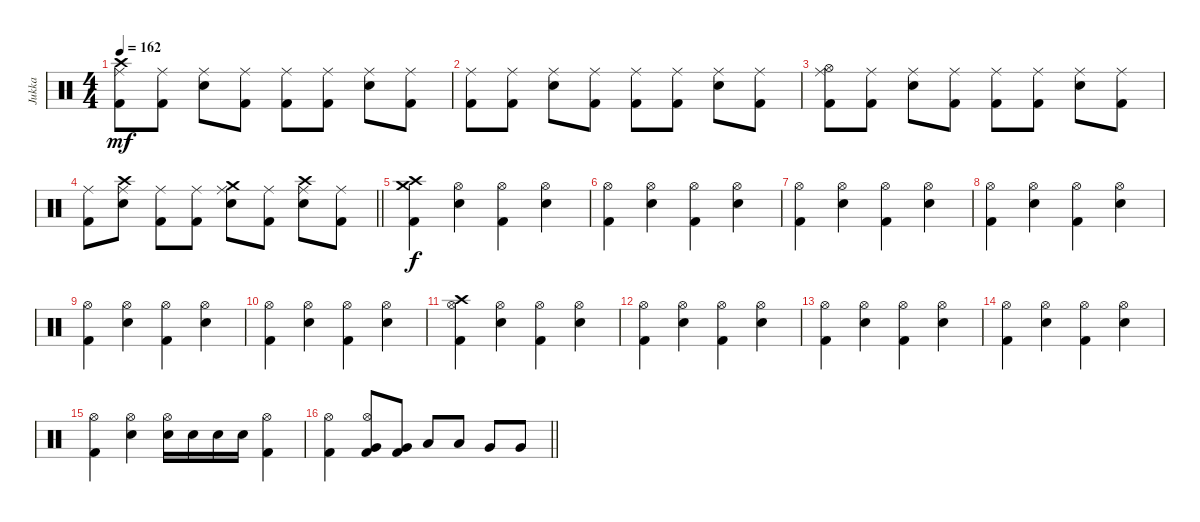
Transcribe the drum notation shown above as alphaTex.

\track ("Jukka" "Jukka") {instrument percussion}
\staff {score}
\articulation defaults
\ts (4 4)
\tempo 162
\clef neutral
\ks c
("Crash high (hit)" "Ride (middle)" "Kick (hit) 2").8{dy mf} ("Ride (middle)" "Kick (hit) 2").8 ("Ride (middle)" "Electric Snare (hit)").8 ("Ride (middle)" "Kick (hit) 2").8 ("Ride (middle)" "Kick (hit) 2").8 ("Ride (middle)" "Kick (hit) 2").8 ("Ride (middle)" "Electric Snare (hit)").8 ("Ride (middle)" "Kick (hit) 2").8 |
("Ride (middle)" "Kick (hit) 2").8 ("Ride (middle)" "Kick (hit) 2").8 ("Ride (middle)" "Electric Snare (hit)").8 ("Ride (middle)" "Kick (hit) 2").8 ("Ride (middle)" "Kick (hit) 2").8 ("Ride (middle)" "Kick (hit) 2").8 ("Ride (middle)" "Electric Snare (hit)").8 ("Ride (middle)" "Kick (hit) 2").8 |
("Hi-Hat (open)" "Ride (middle)" "Kick (hit) 2").8 ("Ride (middle)" "Kick (hit) 2").8 ("Ride (middle)" "Electric Snare (hit)").8 ("Ride (middle)" "Kick (hit) 2").8 ("Ride (middle)" "Kick (hit) 2").8 ("Ride (middle)" "Kick (hit) 2").8 ("Ride (middle)" "Electric Snare (hit)").8 ("Ride (middle)" "Kick (hit) 2").8 |
\barLineRight lightlight
("Ride (middle)" "Kick (hit) 2").8 ("Crash high (hit)" "Ride (middle)" "Electric Snare (hit)").8 ("Ride (middle)" "Kick (hit) 2").8 ("Ride (middle)" "Kick (hit) 2").8 ("Crash medium (hit)" "Ride (middle)" "Electric Snare (hit)").8 ("Ride (middle)" "Kick (hit) 2").8 ("Crash high (hit)" "Ride (middle)" "Electric Snare (hit)").8 ("Ride (middle)" "Kick (hit) 2").8 |
("Crash medium (hit)" "Crash high (hit)" "Kick (hit) 2").4{dy f} ("Hi-Hat (open)" "Electric Snare (hit)").4 ("Hi-Hat (open)" "Kick (hit) 2").4 ("Hi-Hat (open)" "Electric Snare (hit)").4 |
("Hi-Hat (open)" "Kick (hit) 2").4 ("Hi-Hat (open)" "Electric Snare (hit)").4 ("Hi-Hat (open)" "Kick (hit) 2").4 ("Hi-Hat (open)" "Electric Snare (hit)").4 |
("Hi-Hat (open)" "Kick (hit) 2").4 ("Hi-Hat (open)" "Electric Snare (hit)").4 ("Hi-Hat (open)" "Kick (hit) 2").4 ("Hi-Hat (open)" "Electric Snare (hit)").4 |
("Hi-Hat (open)" "Kick (hit) 2").4 ("Hi-Hat (open)" "Electric Snare (hit)").4 ("Hi-Hat (open)" "Kick (hit) 2").4 ("Hi-Hat (open)" "Electric Snare (hit)").4 |
("Hi-Hat (open)" "Kick (hit) 2").4 ("Hi-Hat (open)" "Electric Snare (hit)").4 ("Hi-Hat (open)" "Kick (hit) 2").4 ("Hi-Hat (open)" "Electric Snare (hit)").4 |
("Hi-Hat (open)" "Kick (hit) 2").4 ("Hi-Hat (open)" "Electric Snare (hit)").4 ("Hi-Hat (open)" "Kick (hit) 2").4 ("Hi-Hat (open)" "Electric Snare (hit)").4 |
("Crash high (hit)" "Hi-Hat (open)" "Kick (hit) 2").4 ("Hi-Hat (open)" "Electric Snare (hit)").4 ("Hi-Hat (open)" "Kick (hit) 2").4 ("Hi-Hat (open)" "Electric Snare (hit)").4 |
("Hi-Hat (open)" "Kick (hit) 2").4 ("Hi-Hat (open)" "Electric Snare (hit)").4 ("Hi-Hat (open)" "Kick (hit) 2").4 ("Hi-Hat (open)" "Electric Snare (hit)").4 |
("Hi-Hat (open)" "Kick (hit) 2").4 ("Hi-Hat (open)" "Electric Snare (hit)").4 ("Hi-Hat (open)" "Kick (hit) 2").4 ("Hi-Hat (open)" "Electric Snare (hit)").4 |
("Hi-Hat (open)" "Kick (hit) 2").4 ("Hi-Hat (open)" "Electric Snare (hit)").4 ("Hi-Hat (open)" "Kick (hit) 2").4 ("Hi-Hat (open)" "Electric Snare (hit)").4 |
("Hi-Hat (open)" "Kick (hit) 2").4 ("Hi-Hat (open)" "Electric Snare (hit)").4 ("Hi-Hat (open)" "Electric Snare (hit)").16 "Electric Snare (hit)".16 "Electric Snare (hit)".16 "Electric Snare (hit)".16 ("Hi-Hat (open)" "Kick (hit) 2").4 |
\barLineRight lightlight
("Hi-Hat (open)" "Kick (hit) 2").4 ("Hi-Hat (open)" "Very Low Tom (hit)" "Kick (hit) 2").8 ("Very Low Tom (hit)" "Kick (hit) 2").8 "Low Floor Tom (hit)".8 "Low Floor Tom (hit)".8 "Very Low Tom (hit)".8 "Very Low Tom (hit)".8
